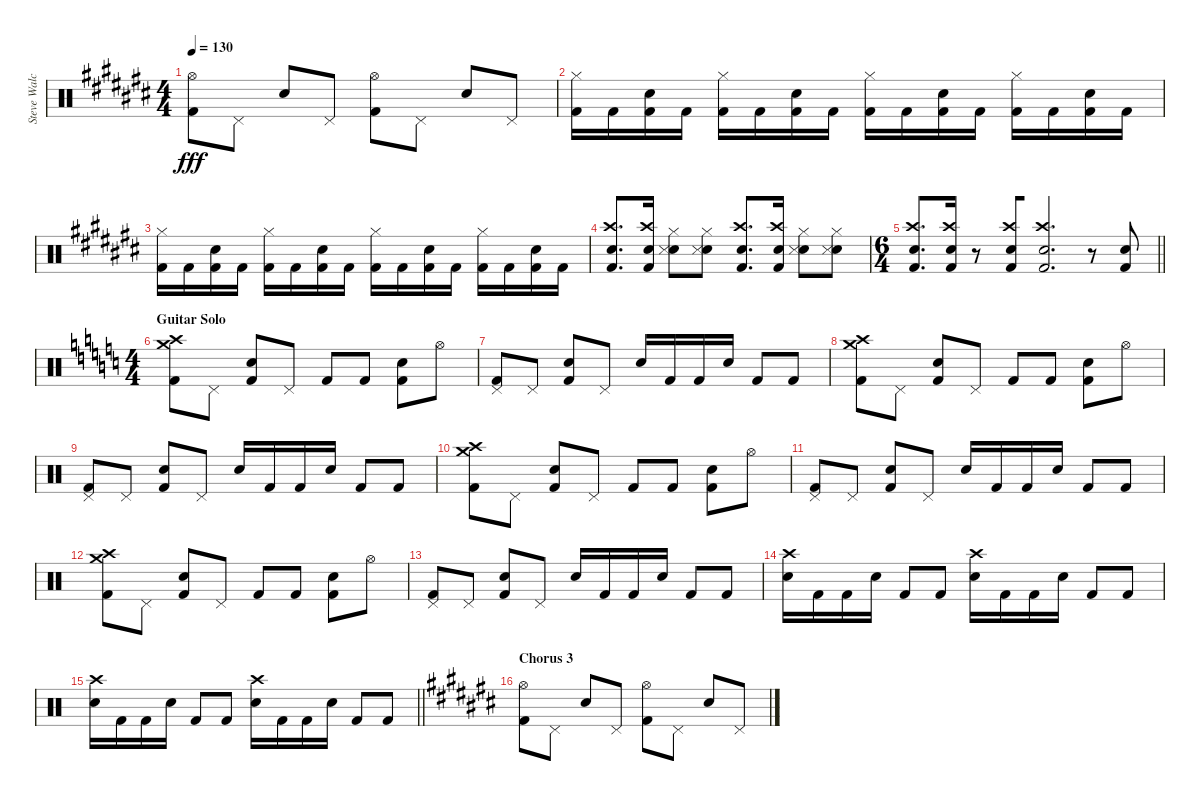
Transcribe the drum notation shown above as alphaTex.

\track ("Steve Walchoz" "Steve Walc") {instrument percussion}
\staff {score}
\articulation defaults
\ts (4 4)
\tempo 130
\clef neutral
\ks c#
("Hi-Hat (open)" "Kick (hit) 2").8{dy fff} "Pedal Hi-Hat (hit)".8 "Snare (hit) 2".8 "Pedal Hi-Hat (hit)".8 ("Hi-Hat (open)" "Kick (hit) 2").8 "Pedal Hi-Hat (hit)".8 "Snare (hit) 2".8 "Pedal Hi-Hat (hit)".8 |
("Hi-Hat (closed)" "Kick (hit) 2").16 "Kick (hit) 2".16 ("Snare (hit) 2" "Kick (hit) 2").16 "Kick (hit) 2".16 ("Hi-Hat (closed)" "Kick (hit) 2").16 "Kick (hit) 2".16 ("Snare (hit) 2" "Kick (hit) 2").16 "Kick (hit) 2".16 ("Hi-Hat (closed)" "Kick (hit) 2").16 "Kick (hit) 2".16 ("Snare (hit) 2" "Kick (hit) 2").16 "Kick (hit) 2".16 ("Hi-Hat (closed)" "Kick (hit) 2").16 "Kick (hit) 2".16 ("Snare (hit) 2" "Kick (hit) 2").16 "Kick (hit) 2".16 |
("Hi-Hat (closed)" "Kick (hit) 2").16 "Kick (hit) 2".16 ("Snare (hit) 2" "Kick (hit) 2").16 "Kick (hit) 2".16 ("Hi-Hat (closed)" "Kick (hit) 2").16 "Kick (hit) 2".16 ("Snare (hit) 2" "Kick (hit) 2").16 "Kick (hit) 2".16 ("Hi-Hat (closed)" "Kick (hit) 2").16 "Kick (hit) 2".16 ("Snare (hit) 2" "Kick (hit) 2").16 "Kick (hit) 2".16 ("Hi-Hat (closed)" "Kick (hit) 2").16 "Kick (hit) 2".16 ("Snare (hit) 2" "Kick (hit) 2").16 "Kick (hit) 2".16 |
("Crash high (hit)" "Snare (hit) 2" "Kick (hit) 2").8{d beam Up beam merge} ("Crash high (hit)" "Snare (hit) 2" "Kick (hit) 2").16{beam Up} ("Snare (hit) 2" "Snare (side stick) 3" "Hi-Hat (closed)").8 ("Snare (hit) 2" "Snare (side stick) 3" "Hi-Hat (closed)").8 ("Crash high (hit)" "Snare (hit) 2" "Kick (hit) 2").8{d beam Up beam merge} ("Crash high (hit)" "Snare (hit) 2" "Kick (hit) 2").16{beam Up} ("Snare (hit) 2" "Snare (side stick) 3" "Hi-Hat (closed)").8 ("Snare (hit) 2" "Snare (side stick) 3" "Hi-Hat (closed)").8 |
\ts (6 4)
\barLineRight lightlight
("Crash high (hit)" "Snare (hit) 2" "Kick (hit) 2").8{d beam Up beam merge} ("Crash high (hit)" "Snare (hit) 2" "Kick (hit) 2").16{beam Up} r.8 ("Crash high (hit)" "Snare (hit) 2" "Kick (hit) 2").8{beam Up beam merge} ("Crash high (hit)" "Snare (hit) 2" "Kick (hit) 2").2{d beam Up} r.8 ("Snare (hit) 2" "Kick (hit) 2").8 |
\ts (4 4)
\section ("" "Guitar Solo")
\ks c
("Crash medium (hit)" "Crash high (hit)" "Kick (hit) 2").8 "Pedal Hi-Hat (hit)".8 ("Snare (hit) 2" "Kick (hit) 2").8 "Pedal Hi-Hat (hit)".8 "Kick (hit) 2".8 "Kick (hit) 2".8 ("Snare (hit) 2" "Kick (hit) 2").8 "Hi-Hat (open)".8 |
("Pedal Hi-Hat (hit)" "Kick (hit) 2").8 "Pedal Hi-Hat (hit)".8 ("Snare (hit) 2" "Kick (hit) 2").8 "Pedal Hi-Hat (hit)".8 "Snare (hit) 2".16 "Kick (hit) 2".16 "Kick (hit) 2".16 "Snare (hit) 2".16 "Kick (hit) 2".8 "Kick (hit) 2".8 |
("Crash medium (hit)" "Crash high (hit)" "Kick (hit) 2").8 "Pedal Hi-Hat (hit)".8 ("Snare (hit) 2" "Kick (hit) 2").8 "Pedal Hi-Hat (hit)".8 "Kick (hit) 2".8 "Kick (hit) 2".8 ("Snare (hit) 2" "Kick (hit) 2").8 "Hi-Hat (open)".8 |
("Pedal Hi-Hat (hit)" "Kick (hit) 2").8 "Pedal Hi-Hat (hit)".8 ("Snare (hit) 2" "Kick (hit) 2").8 "Pedal Hi-Hat (hit)".8 "Snare (hit) 2".16 "Kick (hit) 2".16 "Kick (hit) 2".16 "Snare (hit) 2".16 "Kick (hit) 2".8 "Kick (hit) 2".8 |
("Crash medium (hit)" "Crash high (hit)" "Kick (hit) 2").8 "Pedal Hi-Hat (hit)".8 ("Snare (hit) 2" "Kick (hit) 2").8 "Pedal Hi-Hat (hit)".8 "Kick (hit) 2".8 "Kick (hit) 2".8 ("Snare (hit) 2" "Kick (hit) 2").8 "Hi-Hat (open)".8 |
("Pedal Hi-Hat (hit)" "Kick (hit) 2").8 "Pedal Hi-Hat (hit)".8 ("Snare (hit) 2" "Kick (hit) 2").8 "Pedal Hi-Hat (hit)".8 "Snare (hit) 2".16 "Kick (hit) 2".16 "Kick (hit) 2".16 "Snare (hit) 2".16 "Kick (hit) 2".8 "Kick (hit) 2".8 |
("Crash medium (hit)" "Crash high (hit)" "Kick (hit) 2").8 "Pedal Hi-Hat (hit)".8 ("Snare (hit) 2" "Kick (hit) 2").8 "Pedal Hi-Hat (hit)".8 "Kick (hit) 2".8 "Kick (hit) 2".8 ("Snare (hit) 2" "Kick (hit) 2").8 "Hi-Hat (open)".8 |
("Pedal Hi-Hat (hit)" "Kick (hit) 2").8 "Pedal Hi-Hat (hit)".8 ("Snare (hit) 2" "Kick (hit) 2").8 "Pedal Hi-Hat (hit)".8 "Snare (hit) 2".16 "Kick (hit) 2".16 "Kick (hit) 2".16 "Snare (hit) 2".16 "Kick (hit) 2".8 "Kick (hit) 2".8 |
("Crash high (hit)" "Snare (hit) 2").16 "Kick (hit) 2".16 "Kick (hit) 2".16 "Snare (hit) 2".16 "Kick (hit) 2".8 "Kick (hit) 2".8 ("Crash high (hit)" "Snare (hit) 2").16 "Kick (hit) 2".16 "Kick (hit) 2".16 "Snare (hit) 2".16 "Kick (hit) 2".8 "Kick (hit) 2".8 |
\barLineRight lightlight
("Crash high (hit)" "Snare (hit) 2").16 "Kick (hit) 2".16 "Kick (hit) 2".16 "Snare (hit) 2".16 "Kick (hit) 2".8 "Kick (hit) 2".8 ("Crash high (hit)" "Snare (hit) 2").16 "Kick (hit) 2".16 "Kick (hit) 2".16 "Snare (hit) 2".16 "Kick (hit) 2".8 "Kick (hit) 2".8 |
\section ("" "Chorus 3")
\ks c#
("Hi-Hat (open)" "Kick (hit) 2").8 "Pedal Hi-Hat (hit)".8 "Snare (hit) 2".8 "Pedal Hi-Hat (hit)".8 ("Hi-Hat (open)" "Kick (hit) 2").8 "Pedal Hi-Hat (hit)".8 "Snare (hit) 2".8 "Pedal Hi-Hat (hit)".8
